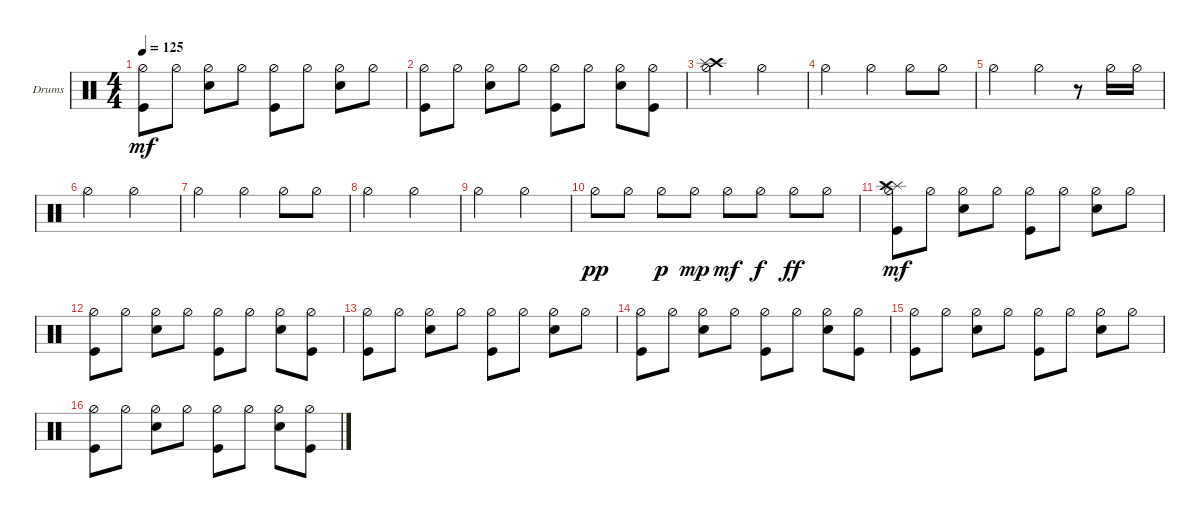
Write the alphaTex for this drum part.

\defaultSystemsLayout 4
\bracketExtendMode groupsimilarinstruments
\firstSystemTrackNameOrientation horizontal
\otherSystemsTrackNameOrientation horizontal
\track ("Drumkit" "Drums") {instrument percussion}
\staff {score}
\articulation defaults
\ts (4 4)
\tempo 125
\clef neutral
\ks c
("Kick (hit)" "Hi-Hat (half)").8{dy mf} "Hi-Hat (half)".8 ("Hi-Hat (half)" "Snare (hit) 2").8 "Hi-Hat (half)".8 ("Kick (hit)" "Hi-Hat (half)").8 "Hi-Hat (half)".8 ("Hi-Hat (half)" "Snare (hit) 2").8 "Hi-Hat (half)".8 |
("Kick (hit)" "Hi-Hat (half)").8 "Hi-Hat (half)".8 ("Hi-Hat (half)" "Snare (hit) 2").8 "Hi-Hat (half)".8 ("Kick (hit)" "Hi-Hat (half)").8 "Hi-Hat (half)".8 ("Hi-Hat (half)" "Snare (hit) 2").8 ("Hi-Hat (half)" "Kick (hit)").8 |
("Hi-Hat (half)" "Crash high (hit)" "Splash (hit)").2 "Hi-Hat (half)".2 |
"Hi-Hat (half)".2 "Hi-Hat (half)".4 "Hi-Hat (half)".8 "Hi-Hat (half)".8 |
"Hi-Hat (half)".2 "Hi-Hat (half)".4 r.8 "Hi-Hat (half)".16 "Hi-Hat (half)".16 |
"Hi-Hat (half)".2 "Hi-Hat (half)".2 |
"Hi-Hat (half)".2 "Hi-Hat (half)".4 "Hi-Hat (half)".8 "Hi-Hat (half)".8 |
"Hi-Hat (half)".2 "Hi-Hat (half)".2 |
"Hi-Hat (half)".2 "Hi-Hat (half)".2 |
"Hi-Hat (half)".8{dy pp} "Hi-Hat (half)".8 "Hi-Hat (half)".8{dy p} "Hi-Hat (half)".8{dy mp} "Hi-Hat (half)".8{dy mf} "Hi-Hat (half)".8{dy f} "Hi-Hat (half)".8{dy ff} "Hi-Hat (half)".8 |
("Kick (hit)" "Hi-Hat (half)" "Splash (hit)" "Crash high (hit)").8{dy mf} "Hi-Hat (half)".8 ("Hi-Hat (half)" "Snare (hit) 2").8 "Hi-Hat (half)".8 ("Kick (hit)" "Hi-Hat (half)").8 "Hi-Hat (half)".8 ("Hi-Hat (half)" "Snare (hit) 2").8 "Hi-Hat (half)".8 |
("Kick (hit)" "Hi-Hat (half)").8 "Hi-Hat (half)".8 ("Hi-Hat (half)" "Snare (hit) 2").8 "Hi-Hat (half)".8 ("Kick (hit)" "Hi-Hat (half)").8 "Hi-Hat (half)".8 ("Hi-Hat (half)" "Snare (hit) 2").8 ("Hi-Hat (half)" "Kick (hit)").8 |
("Kick (hit)" "Hi-Hat (half)").8 "Hi-Hat (half)".8 ("Hi-Hat (half)" "Snare (hit) 2").8 "Hi-Hat (half)".8 ("Kick (hit)" "Hi-Hat (half)").8 "Hi-Hat (half)".8 ("Hi-Hat (half)" "Snare (hit) 2").8 "Hi-Hat (half)".8 |
("Kick (hit)" "Hi-Hat (half)").8 "Hi-Hat (half)".8 ("Hi-Hat (half)" "Snare (hit) 2").8 "Hi-Hat (half)".8 ("Kick (hit)" "Hi-Hat (half)").8 "Hi-Hat (half)".8 ("Hi-Hat (half)" "Snare (hit) 2").8 ("Hi-Hat (half)" "Kick (hit)").8 |
("Kick (hit)" "Hi-Hat (half)").8 "Hi-Hat (half)".8 ("Hi-Hat (half)" "Snare (hit) 2").8 "Hi-Hat (half)".8 ("Kick (hit)" "Hi-Hat (half)").8 "Hi-Hat (half)".8 ("Hi-Hat (half)" "Snare (hit) 2").8 "Hi-Hat (half)".8 |
("Kick (hit)" "Hi-Hat (half)").8 "Hi-Hat (half)".8 ("Hi-Hat (half)" "Snare (hit) 2").8 "Hi-Hat (half)".8 ("Kick (hit)" "Hi-Hat (half)").8 "Hi-Hat (half)".8 ("Hi-Hat (half)" "Snare (hit) 2").8 ("Hi-Hat (half)" "Kick (hit)").8
